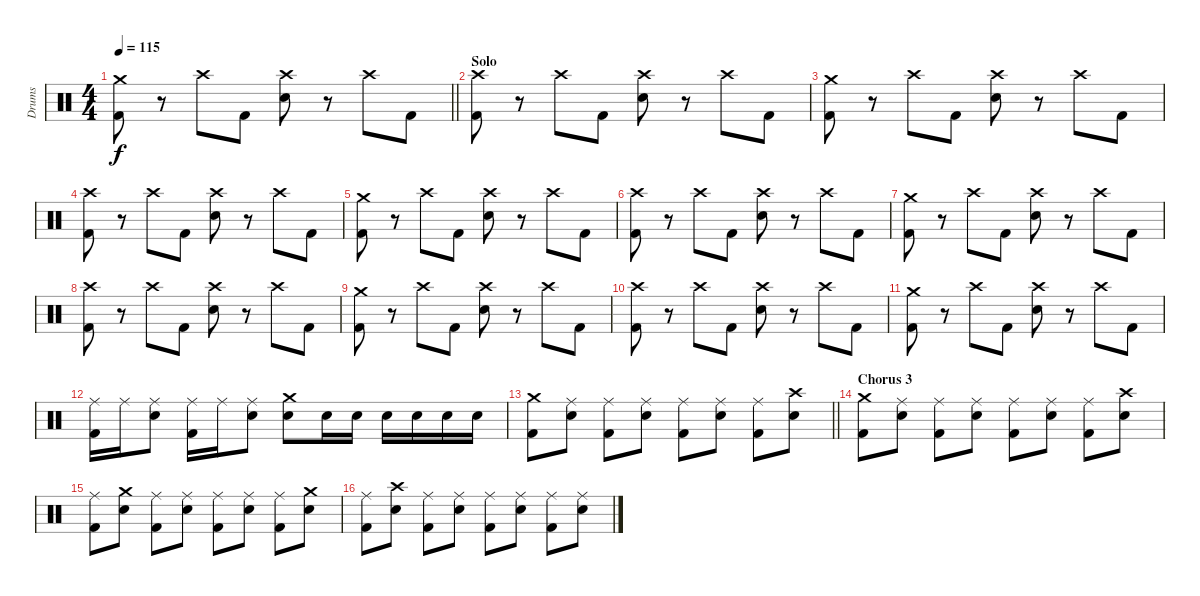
\track ("Drums" "Drums") {instrument percussion}
\staff {score}
\articulation defaults
\ts (4 4)
\tempo 115
\clef neutral
\barLineRight lightlight
\ks c
("Crash medium (hit)" "Kick (hit) 2").8{dy f} r.8 "Crash high (hit)".8 "Kick (hit) 2".8 ("Crash high (hit)" "Snare (hit) 2").8 r.8 "Crash high (hit)".8 "Kick (hit) 2".8 |
\section ("" "Solo")
("Crash high (hit)" "Kick (hit) 2").8 r.8 "Crash high (hit)".8 "Kick (hit) 2".8 ("Crash high (hit)" "Snare (hit) 2").8 r.8 "Crash high (hit)".8 "Kick (hit) 2".8 |
("Crash medium (hit)" "Kick (hit) 2").8 r.8 "Crash high (hit)".8 "Kick (hit) 2".8 ("Crash high (hit)" "Snare (hit) 2").8 r.8 "Crash high (hit)".8 "Kick (hit) 2".8 |
("Crash high (hit)" "Kick (hit) 2").8 r.8 "Crash high (hit)".8 "Kick (hit) 2".8 ("Crash high (hit)" "Snare (hit) 2").8 r.8 "Crash high (hit)".8 "Kick (hit) 2".8 |
("Crash medium (hit)" "Kick (hit) 2").8 r.8 "Crash high (hit)".8 "Kick (hit) 2".8 ("Crash high (hit)" "Snare (hit) 2").8 r.8 "Crash high (hit)".8 "Kick (hit) 2".8 |
("Crash high (hit)" "Kick (hit) 2").8 r.8 "Crash high (hit)".8 "Kick (hit) 2".8 ("Crash high (hit)" "Snare (hit) 2").8 r.8 "Crash high (hit)".8 "Kick (hit) 2".8 |
("Crash medium (hit)" "Kick (hit) 2").8 r.8 "Crash high (hit)".8 "Kick (hit) 2".8 ("Crash high (hit)" "Snare (hit) 2").8 r.8 "Crash high (hit)".8 "Kick (hit) 2".8 |
("Crash high (hit)" "Kick (hit) 2").8 r.8 "Crash high (hit)".8 "Kick (hit) 2".8 ("Crash high (hit)" "Snare (hit) 2").8 r.8 "Crash high (hit)".8 "Kick (hit) 2".8 |
("Crash medium (hit)" "Kick (hit) 2").8 r.8 "Crash high (hit)".8 "Kick (hit) 2".8 ("Crash high (hit)" "Snare (hit) 2").8 r.8 "Crash high (hit)".8 "Kick (hit) 2".8 |
("Crash high (hit)" "Kick (hit) 2").8 r.8 "Crash high (hit)".8 "Kick (hit) 2".8 ("Crash high (hit)" "Snare (hit) 2").8 r.8 "Crash high (hit)".8 "Kick (hit) 2".8 |
("Crash medium (hit)" "Kick (hit) 2").8 r.8 "Crash high (hit)".8 "Kick (hit) 2".8 ("Crash high (hit)" "Snare (hit) 2").8 r.8 "Crash high (hit)".8 "Kick (hit) 2".8 |
("Ride (middle)" "Kick (hit) 2").16 "Ride (middle)".16 ("Ride (middle)" "Snare (hit) 2").8 ("Ride (middle)" "Kick (hit) 2").16 "Ride (middle)".16 ("Ride (middle)" "Snare (hit) 2").8 ("Crash medium (hit)" "Snare (hit) 2").8 "Snare (hit) 2".16 "Snare (hit) 2".16 "Snare (hit) 2".16 "Snare (hit) 2".16 "Snare (hit) 2".16 "Snare (hit) 2".16 |
\barLineRight lightlight
("Crash medium (hit)" "Kick (hit) 2").8 ("Ride (middle)" "Snare (hit) 2").8 ("Ride (middle)" "Kick (hit) 2").8 ("Ride (middle)" "Snare (hit) 2").8 ("Ride (middle)" "Kick (hit) 2").8 ("Ride (middle)" "Snare (hit) 2").8 ("Ride (middle)" "Kick (hit) 2").8 ("Crash high (hit)" "Snare (hit) 2").8 |
\section ("" "Chorus 3")
("Crash medium (hit)" "Kick (hit) 2").8 ("Ride (middle)" "Snare (hit) 2").8 ("Ride (middle)" "Kick (hit) 2").8 ("Ride (middle)" "Snare (hit) 2").8 ("Ride (middle)" "Kick (hit) 2").8 ("Ride (middle)" "Snare (hit) 2").8 ("Ride (middle)" "Kick (hit) 2").8 ("Crash high (hit)" "Snare (hit) 2").8 |
("Ride (middle)" "Kick (hit) 2").8 ("Crash medium (hit)" "Snare (hit) 2").8 ("Ride (middle)" "Kick (hit) 2").8 ("Ride (middle)" "Snare (hit) 2").8 ("Ride (middle)" "Kick (hit) 2").8 ("Ride (middle)" "Snare (hit) 2").8 ("Ride (middle)" "Kick (hit) 2").8 ("Crash medium (hit)" "Snare (hit) 2").8 |
("Ride (middle)" "Kick (hit) 2").8 ("Crash high (hit)" "Snare (hit) 2").8 ("Ride (middle)" "Kick (hit) 2").8 ("Ride (middle)" "Snare (hit) 2").8 ("Ride (middle)" "Kick (hit) 2").8 ("Ride (middle)" "Snare (hit) 2").8 ("Ride (middle)" "Kick (hit) 2").8 ("Ride (middle)" "Snare (hit) 2").8
